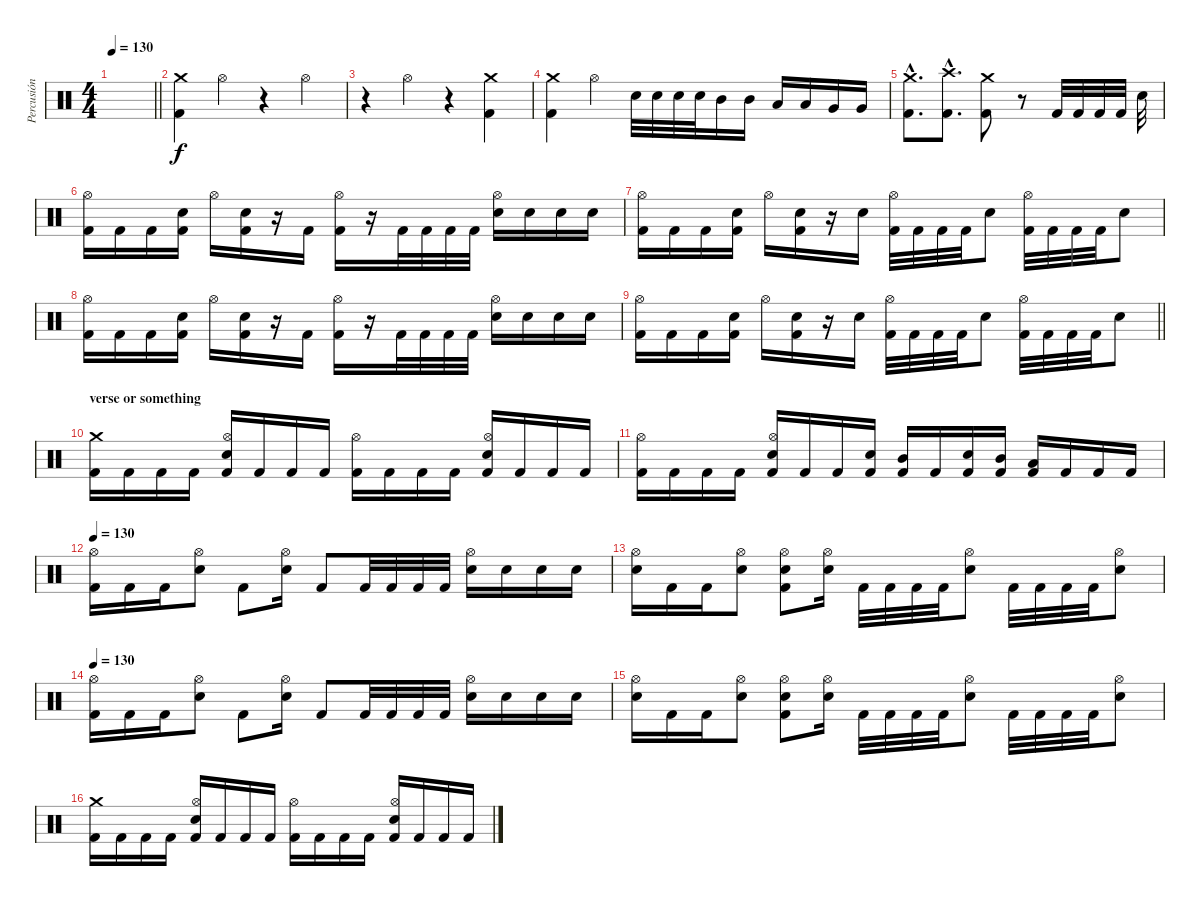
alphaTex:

\track ("Percusión" "Percusión") {instrument percussion}
\staff {score}
\articulation defaults
\ts (4 4)
\tempo 130
\clef neutral
\barLineRight lightlight
\ks c
|
("Kick (hit) 2" "Crash medium (hit)").4 "Hi-Hat (open)".4 r.4 "Hi-Hat (open)".4 |
r.4 "Hi-Hat (open)".4 r.4 ("Crash medium (hit)" "Kick (hit) 2").4 |
("Crash medium (hit)" "Kick (hit) 2").4 "Hi-Hat (open)".4 "Electric Snare (hit)".32 "Electric Snare (hit)".32 "Electric Snare (hit)".32 "Electric Snare (hit)".32 "Mid Tom (hit)".16 "Mid Tom (hit)".16 "Low Tom (hit)".16 "Low Tom (hit)".16 "Very Low Tom (hit)".16 "Very Low Tom (hit)".16 |
("Crash medium (hit)"{hac} "Kick (hit) 2"{hac}).8{d} ("Crash high (hit)"{hac} "Kick (hit) 2"{hac}).8{d} ("Crash medium (hit)" "Kick (hit) 2").8 r.8 "Kick (hit) 2".32 "Kick (hit) 2".32 "Kick (hit) 2".32 "Kick (hit) 2".32 "Electric Snare (hit)".32 |
("Hi-Hat (open)" "Kick (hit) 2").16 "Kick (hit) 2".16 "Kick (hit) 2".16 ("Electric Snare (hit)" "Kick (hit) 2").16 "Hi-Hat (open)".16 ("Electric Snare (hit)" "Kick (hit) 2").16 r.16 "Kick (hit) 2".16 ("Hi-Hat (open)" "Kick (hit) 2").16 r.16 "Kick (hit) 2".32 "Kick (hit) 2".32 "Kick (hit) 2".32 "Kick (hit) 2".32 ("Hi-Hat (open)" "Electric Snare (hit)").16 "Electric Snare (hit)".16 "Electric Snare (hit)".16 "Electric Snare (hit)".16 |
("Hi-Hat (open)" "Kick (hit) 2").16 "Kick (hit) 2".16 "Kick (hit) 2".16 ("Electric Snare (hit)" "Kick (hit) 2").16 "Hi-Hat (open)".16 ("Electric Snare (hit)" "Kick (hit) 2").16 r.16 "Electric Snare (hit)".16 ("Hi-Hat (open)" "Kick (hit) 2").32 "Kick (hit) 2".32 "Kick (hit) 2".32 "Kick (hit) 2".32 "Electric Snare (hit)".8 ("Hi-Hat (open)" "Kick (hit) 2").32 "Kick (hit) 2".32 "Kick (hit) 2".32 "Kick (hit) 2".32 "Electric Snare (hit)".8 |
("Hi-Hat (open)" "Kick (hit) 2").16 "Kick (hit) 2".16 "Kick (hit) 2".16 ("Electric Snare (hit)" "Kick (hit) 2").16 "Hi-Hat (open)".16 ("Electric Snare (hit)" "Kick (hit) 2").16 r.16 "Kick (hit) 2".16 ("Hi-Hat (open)" "Kick (hit) 2").16 r.16 "Kick (hit) 2".32 "Kick (hit) 2".32 "Kick (hit) 2".32 "Kick (hit) 2".32 ("Hi-Hat (open)" "Electric Snare (hit)").16 "Electric Snare (hit)".16 "Electric Snare (hit)".16 "Electric Snare (hit)".16 |
\barLineRight lightlight
("Hi-Hat (open)" "Kick (hit) 2").16 "Kick (hit) 2".16 "Kick (hit) 2".16 ("Electric Snare (hit)" "Kick (hit) 2").16 "Hi-Hat (open)".16 ("Electric Snare (hit)" "Kick (hit) 2").16 r.16 "Electric Snare (hit)".16 ("Hi-Hat (open)" "Kick (hit) 2").32 "Kick (hit) 2".32 "Kick (hit) 2".32 "Kick (hit) 2".32 "Electric Snare (hit)".8 ("Hi-Hat (open)" "Kick (hit) 2").32 "Kick (hit) 2".32 "Kick (hit) 2".32 "Kick (hit) 2".32 "Electric Snare (hit)".8 |
\section ("" "verse or something")
("Crash medium (hit)" "Kick (hit) 2").16 "Kick (hit) 2".16 "Kick (hit) 2".16 "Kick (hit) 2".16 ("Electric Snare (hit)" "Hi-Hat (open)" "Kick (hit) 2").16 "Kick (hit) 2".16 "Kick (hit) 2".16 "Kick (hit) 2".16 ("Hi-Hat (open)" "Kick (hit) 2").16 "Kick (hit) 2".16 "Kick (hit) 2".16 "Kick (hit) 2".16 ("Electric Snare (hit)" "Hi-Hat (open)" "Kick (hit) 2").16 "Kick (hit) 2".16 "Kick (hit) 2".16 "Kick (hit) 2".16 |
("Hi-Hat (open)" "Kick (hit) 2").16 "Kick (hit) 2".16 "Kick (hit) 2".16 "Kick (hit) 2".16 ("Electric Snare (hit)" "Hi-Hat (open)" "Kick (hit) 2").16 "Kick (hit) 2".16 "Kick (hit) 2".16 ("Electric Snare (hit)" "Kick (hit) 2").16 ("Mid Tom (hit)" "Kick (hit) 2").16 "Kick (hit) 2".16 ("Electric Snare (hit)" "Kick (hit) 2").16 ("Mid Tom (hit)" "Kick (hit) 2").16 ("Low Tom (hit)" "Kick (hit) 2").16 "Kick (hit) 2".16 "Kick (hit) 2".16 "Kick (hit) 2".16 |
\tempo 130
("Hi-Hat (open)" "Kick (hit) 2").16 "Kick (hit) 2".16 "Kick (hit) 2".16 ("Hi-Hat (open)" "Electric Snare (hit)").8 "Kick (hit) 2".8 ("Hi-Hat (open)" "Electric Snare (hit)").16 "Kick (hit) 2".8 "Kick (hit) 2".32 "Kick (hit) 2".32 "Kick (hit) 2".32 "Kick (hit) 2".32 ("Hi-Hat (open)" "Electric Snare (hit)").16 "Electric Snare (hit)".16 "Electric Snare (hit)".16 "Electric Snare (hit)".16 |
("Hi-Hat (open)" "Electric Snare (hit)").16 "Kick (hit) 2".16 "Kick (hit) 2".16 ("Hi-Hat (open)" "Electric Snare (hit)").8 ("Hi-Hat (open)" "Kick (hit) 2" "Electric Snare (hit)").8 ("Hi-Hat (open)" "Electric Snare (hit)").16 "Kick (hit) 2".32 "Kick (hit) 2".32 "Kick (hit) 2".32 "Kick (hit) 2".32 ("Electric Snare (hit)" "Hi-Hat (open)").8 "Kick (hit) 2".32 "Kick (hit) 2".32 "Kick (hit) 2".32 "Kick (hit) 2".32 ("Electric Snare (hit)" "Hi-Hat (open)").8 |
\tempo 130
("Hi-Hat (open)" "Kick (hit) 2").16 "Kick (hit) 2".16 "Kick (hit) 2".16 ("Hi-Hat (open)" "Electric Snare (hit)").8 "Kick (hit) 2".8 ("Hi-Hat (open)" "Electric Snare (hit)").16 "Kick (hit) 2".8 "Kick (hit) 2".32 "Kick (hit) 2".32 "Kick (hit) 2".32 "Kick (hit) 2".32 ("Hi-Hat (open)" "Electric Snare (hit)").16 "Electric Snare (hit)".16 "Electric Snare (hit)".16 "Electric Snare (hit)".16 |
("Hi-Hat (open)" "Electric Snare (hit)").16 "Kick (hit) 2".16 "Kick (hit) 2".16 ("Hi-Hat (open)" "Electric Snare (hit)").8 ("Hi-Hat (open)" "Kick (hit) 2" "Electric Snare (hit)").8 ("Hi-Hat (open)" "Electric Snare (hit)").16 "Kick (hit) 2".32 "Kick (hit) 2".32 "Kick (hit) 2".32 "Kick (hit) 2".32 ("Electric Snare (hit)" "Hi-Hat (open)").8 "Kick (hit) 2".32 "Kick (hit) 2".32 "Kick (hit) 2".32 "Kick (hit) 2".32 ("Electric Snare (hit)" "Hi-Hat (open)").8 |
("Crash medium (hit)" "Kick (hit) 2").16 "Kick (hit) 2".16 "Kick (hit) 2".16 "Kick (hit) 2".16 ("Electric Snare (hit)" "Hi-Hat (open)" "Kick (hit) 2").16 "Kick (hit) 2".16 "Kick (hit) 2".16 "Kick (hit) 2".16 ("Hi-Hat (open)" "Kick (hit) 2").16 "Kick (hit) 2".16 "Kick (hit) 2".16 "Kick (hit) 2".16 ("Electric Snare (hit)" "Hi-Hat (open)" "Kick (hit) 2").16 "Kick (hit) 2".16 "Kick (hit) 2".16 "Kick (hit) 2".16
